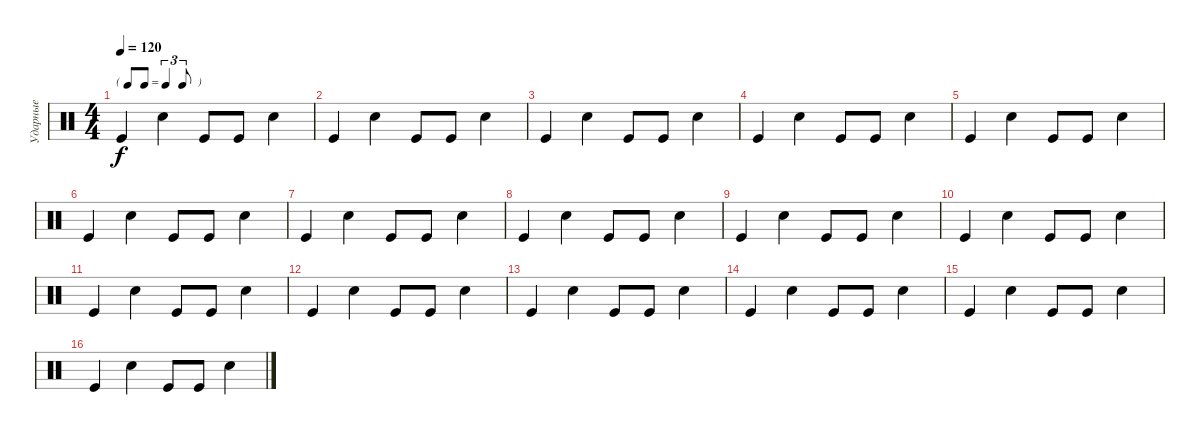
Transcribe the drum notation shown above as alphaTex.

\track ("Ударные" "Ударные") {instrument percussion}
\staff {score}
\articulation defaults
\ts (4 4)
\tf triplet8th
\tempo 120
\clef neutral
\ks c "Kick (hit)".4{dy f} "Snare (hit) 2".4 "Kick (hit)".8 "Kick (hit)".8 "Snare (hit) 2".4
|
"Kick (hit)".4 "Snare (hit) 2".4 "Kick (hit)".8 "Kick (hit)".8 "Snare (hit) 2".4 |
"Kick (hit)".4 "Snare (hit) 2".4 "Kick (hit)".8 "Kick (hit)".8 "Snare (hit) 2".4 |
"Kick (hit)".4 "Snare (hit) 2".4 "Kick (hit)".8 "Kick (hit)".8 "Snare (hit) 2".4 |
"Kick (hit)".4 "Snare (hit) 2".4 "Kick (hit)".8 "Kick (hit)".8 "Snare (hit) 2".4 |
"Kick (hit)".4 "Snare (hit) 2".4 "Kick (hit)".8 "Kick (hit)".8 "Snare (hit) 2".4 |
"Kick (hit)".4 "Snare (hit) 2".4 "Kick (hit)".8 "Kick (hit)".8 "Snare (hit) 2".4 |
"Kick (hit)".4 "Snare (hit) 2".4 "Kick (hit)".8 "Kick (hit)".8 "Snare (hit) 2".4 |
"Kick (hit)".4 "Snare (hit) 2".4 "Kick (hit)".8 "Kick (hit)".8 "Snare (hit) 2".4 |
"Kick (hit)".4 "Snare (hit) 2".4 "Kick (hit)".8 "Kick (hit)".8 "Snare (hit) 2".4 |
"Kick (hit)".4 "Snare (hit) 2".4 "Kick (hit)".8 "Kick (hit)".8 "Snare (hit) 2".4 |
"Kick (hit)".4 "Snare (hit) 2".4 "Kick (hit)".8 "Kick (hit)".8 "Snare (hit) 2".4 |
"Kick (hit)".4 "Snare (hit) 2".4 "Kick (hit)".8 "Kick (hit)".8 "Snare (hit) 2".4 |
"Kick (hit)".4 "Snare (hit) 2".4 "Kick (hit)".8 "Kick (hit)".8 "Snare (hit) 2".4 |
"Kick (hit)".4 "Snare (hit) 2".4 "Kick (hit)".8 "Kick (hit)".8 "Snare (hit) 2".4 |
"Kick (hit)".4 "Snare (hit) 2".4 "Kick (hit)".8 "Kick (hit)".8 "Snare (hit) 2".4
